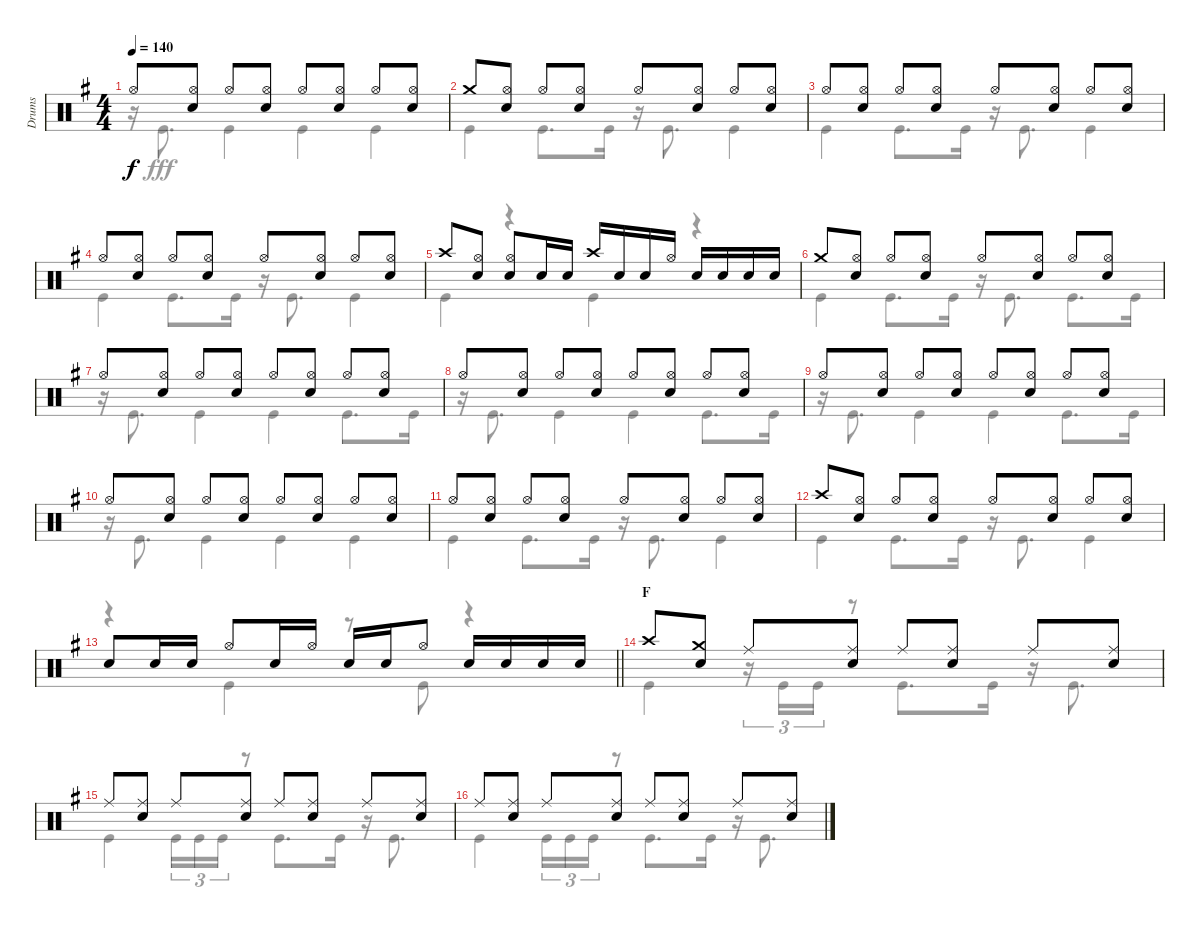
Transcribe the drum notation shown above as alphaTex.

\track ("Drums" "Drums") {instrument percussion}
\staff {score}
\articulation defaults
\voice
\ts (4 4)
\tempo 140
\clef neutral
\ks g "Hi-Hat (open)".8{dy f}
("Hi-Hat (open)" "Snare (hit) 2").8 "Hi-Hat (open)".8 ("Hi-Hat (open)" "Snare (hit) 2").8 "Hi-Hat (open)".8 ("Hi-Hat (open)" "Snare (hit) 2").8 "Hi-Hat (open)".8 ("Hi-Hat (open)" "Snare (hit) 2").8 |
"Crash medium (hit)".8 ("Hi-Hat (open)" "Snare (hit) 2").8 "Hi-Hat (open)".8 ("Hi-Hat (open)" "Snare (hit) 2").8 "Hi-Hat (open)".8 ("Hi-Hat (open)" "Snare (hit) 2").8 "Hi-Hat (open)".8 ("Hi-Hat (open)" "Snare (hit) 2").8 |
"Hi-Hat (open)".8 ("Hi-Hat (open)" "Snare (hit) 2").8 "Hi-Hat (open)".8 ("Hi-Hat (open)" "Snare (hit) 2").8 "Hi-Hat (open)".8 ("Hi-Hat (open)" "Snare (hit) 2").8 "Hi-Hat (open)".8 ("Hi-Hat (open)" "Snare (hit) 2").8 |
"Hi-Hat (open)".8 ("Hi-Hat (open)" "Snare (hit) 2").8 "Hi-Hat (open)".8 ("Hi-Hat (open)" "Snare (hit) 2").8 "Hi-Hat (open)".8 ("Hi-Hat (open)" "Snare (hit) 2").8 "Hi-Hat (open)".8 ("Hi-Hat (open)" "Snare (hit) 2").8 |
"Crash high (hit)".8 ("Hi-Hat (open)" "Snare (hit) 2").8 ("Hi-Hat (open)" "Snare (hit) 2").8 "Snare (hit) 2".16 "Snare (hit) 2".16 "Crash high (hit)".16 "Snare (hit) 2".16 "Snare (hit) 2".16 "Hi-Hat (open)".16 "Snare (hit) 2".16 "Snare (hit) 2".16 "Snare (hit) 2".16 "Snare (hit) 2".16 |
"Crash medium (hit)".8 ("Hi-Hat (open)" "Snare (hit) 2").8 "Hi-Hat (open)".8 ("Hi-Hat (open)" "Snare (hit) 2").8 "Hi-Hat (open)".8 ("Hi-Hat (open)" "Snare (hit) 2").8 "Hi-Hat (open)".8 ("Hi-Hat (open)" "Snare (hit) 2").8 |
"Hi-Hat (open)".8 ("Hi-Hat (open)" "Snare (hit) 2").8 "Hi-Hat (open)".8 ("Hi-Hat (open)" "Snare (hit) 2").8 "Hi-Hat (open)".8 ("Hi-Hat (open)" "Snare (hit) 2").8 "Hi-Hat (open)".8 ("Hi-Hat (open)" "Snare (hit) 2").8 |
"Hi-Hat (open)".8 ("Hi-Hat (open)" "Snare (hit) 2").8 "Hi-Hat (open)".8 ("Hi-Hat (open)" "Snare (hit) 2").8 "Hi-Hat (open)".8 ("Hi-Hat (open)" "Snare (hit) 2").8 "Hi-Hat (open)".8 ("Hi-Hat (open)" "Snare (hit) 2").8 |
"Hi-Hat (open)".8 ("Hi-Hat (open)" "Snare (hit) 2").8 "Hi-Hat (open)".8 ("Hi-Hat (open)" "Snare (hit) 2").8 "Hi-Hat (open)".8 ("Hi-Hat (open)" "Snare (hit) 2").8 "Hi-Hat (open)".8 ("Hi-Hat (open)" "Snare (hit) 2").8 |
"Hi-Hat (open)".8 ("Hi-Hat (open)" "Snare (hit) 2").8 "Hi-Hat (open)".8 ("Hi-Hat (open)" "Snare (hit) 2").8 "Hi-Hat (open)".8 ("Hi-Hat (open)" "Snare (hit) 2").8 "Hi-Hat (open)".8 ("Hi-Hat (open)" "Snare (hit) 2").8 |
"Hi-Hat (open)".8 ("Hi-Hat (open)" "Snare (hit) 2").8 "Hi-Hat (open)".8 ("Hi-Hat (open)" "Snare (hit) 2").8 "Hi-Hat (open)".8 ("Hi-Hat (open)" "Snare (hit) 2").8 "Hi-Hat (open)".8 ("Hi-Hat (open)" "Snare (hit) 2").8 |
"Crash high (hit)".8 ("Hi-Hat (open)" "Snare (hit) 2").8 "Hi-Hat (open)".8 ("Hi-Hat (open)" "Snare (hit) 2").8 "Hi-Hat (open)".8 ("Hi-Hat (open)" "Snare (hit) 2").8 "Hi-Hat (open)".8 ("Hi-Hat (open)" "Snare (hit) 2").8 |
\barLineRight lightlight "Snare (hit) 2".8 "Snare (hit) 2".16 "Snare (hit) 2".16 "Hi-Hat (open)".8 "Snare (hit) 2".16 "Hi-Hat (open)".16 "Snare (hit) 2".16 "Snare (hit) 2".16 "Hi-Hat (open)".8 "Snare (hit) 2".16 "Snare (hit) 2".16 "Snare (hit) 2".16 "Snare (hit) 2".16
|
\section ("" "F")
"Crash high (hit)".8 ("Crash medium (hit)" "Snare (hit) 2").8 "Ride (middle)".8 ("Ride (middle)" "Snare (hit) 2").8 "Ride (middle)".8 ("Ride (middle)" "Snare (hit) 2").8 "Ride (middle)".8 ("Ride (middle)" "Snare (hit) 2").8 |
"Ride (middle)".8 ("Ride (middle)" "Snare (hit) 2").8 "Ride (middle)".8 ("Ride (middle)" "Snare (hit) 2").8 "Ride (middle)".8 ("Ride (middle)" "Snare (hit) 2").8 "Ride (middle)".8 ("Ride (middle)" "Snare (hit) 2").8 |
"Ride (middle)".8 ("Ride (middle)" "Snare (hit) 2").8 "Ride (middle)".8 ("Ride (middle)" "Snare (hit) 2").8 "Ride (middle)".8 ("Ride (middle)" "Snare (hit) 2").8 "Ride (middle)".8 ("Ride (middle)" "Snare (hit) 2").8
\voice
\clef neutral
\ottava regular
\simile none
\ks g
r.16{dy fff} "Kick (hit)".8{d} "Kick (hit)".4 "Kick (hit)".4 "Kick (hit)".4 |
"Kick (hit)".4 "Kick (hit)".8{d} "Kick (hit)".16 r.16 "Kick (hit)".8{d} "Kick (hit)".4 |
"Kick (hit)".4 "Kick (hit)".8{d} "Kick (hit)".16 r.16 "Kick (hit)".8{d} "Kick (hit)".4 |
"Kick (hit)".4 "Kick (hit)".8{d} "Kick (hit)".16 r.16 "Kick (hit)".8{d} "Kick (hit)".4 |
"Kick (hit)".4 r.4 "Kick (hit)".4 r.4 |
"Kick (hit)".4 "Kick (hit)".8{d} "Kick (hit)".16 r.16 "Kick (hit)".8{d} "Kick (hit)".8{d} "Kick (hit)".16 |
r.16 "Kick (hit)".8{d} "Kick (hit)".4 "Kick (hit)".4 "Kick (hit)".8{d} "Kick (hit)".16 |
r.16 "Kick (hit)".8{d} "Kick (hit)".4 "Kick (hit)".4 "Kick (hit)".8{d} "Kick (hit)".16 |
r.16 "Kick (hit)".8{d} "Kick (hit)".4 "Kick (hit)".4 "Kick (hit)".8{d} "Kick (hit)".16 |
r.16 "Kick (hit)".8{d} "Kick (hit)".4 "Kick (hit)".4 "Kick (hit)".4 |
"Kick (hit)".4 "Kick (hit)".8{d} "Kick (hit)".16 r.16 "Kick (hit)".8{d} "Kick (hit)".4 |
"Kick (hit)".4 "Kick (hit)".8{d} "Kick (hit)".16 r.16 "Kick (hit)".8{d} "Kick (hit)".4 |
\barLineRight lightlight
r.4 "Kick (hit)".4 r.8 "Kick (hit)".8 r.4 |
"Kick (hit)".4 r.16{tu (3 2)} "Kick (hit)".16{tu (3 2)} "Kick (hit)".16{tu (3 2)} r.8 "Kick (hit)".8{d} "Kick (hit)".16 r.16 "Kick (hit)".8{d} |
"Kick (hit)".4 "Kick (hit)".16{tu (3 2)} "Kick (hit)".16{tu (3 2)} "Kick (hit)".16{tu (3 2)} r.8 "Kick (hit)".8{d} "Kick (hit)".16 r.16 "Kick (hit)".8{d} |
"Kick (hit)".4 "Kick (hit)".16{tu (3 2)} "Kick (hit)".16{tu (3 2)} "Kick (hit)".16{tu (3 2)} r.8 "Kick (hit)".8{d} "Kick (hit)".16 r.16 "Kick (hit)".8{d}
